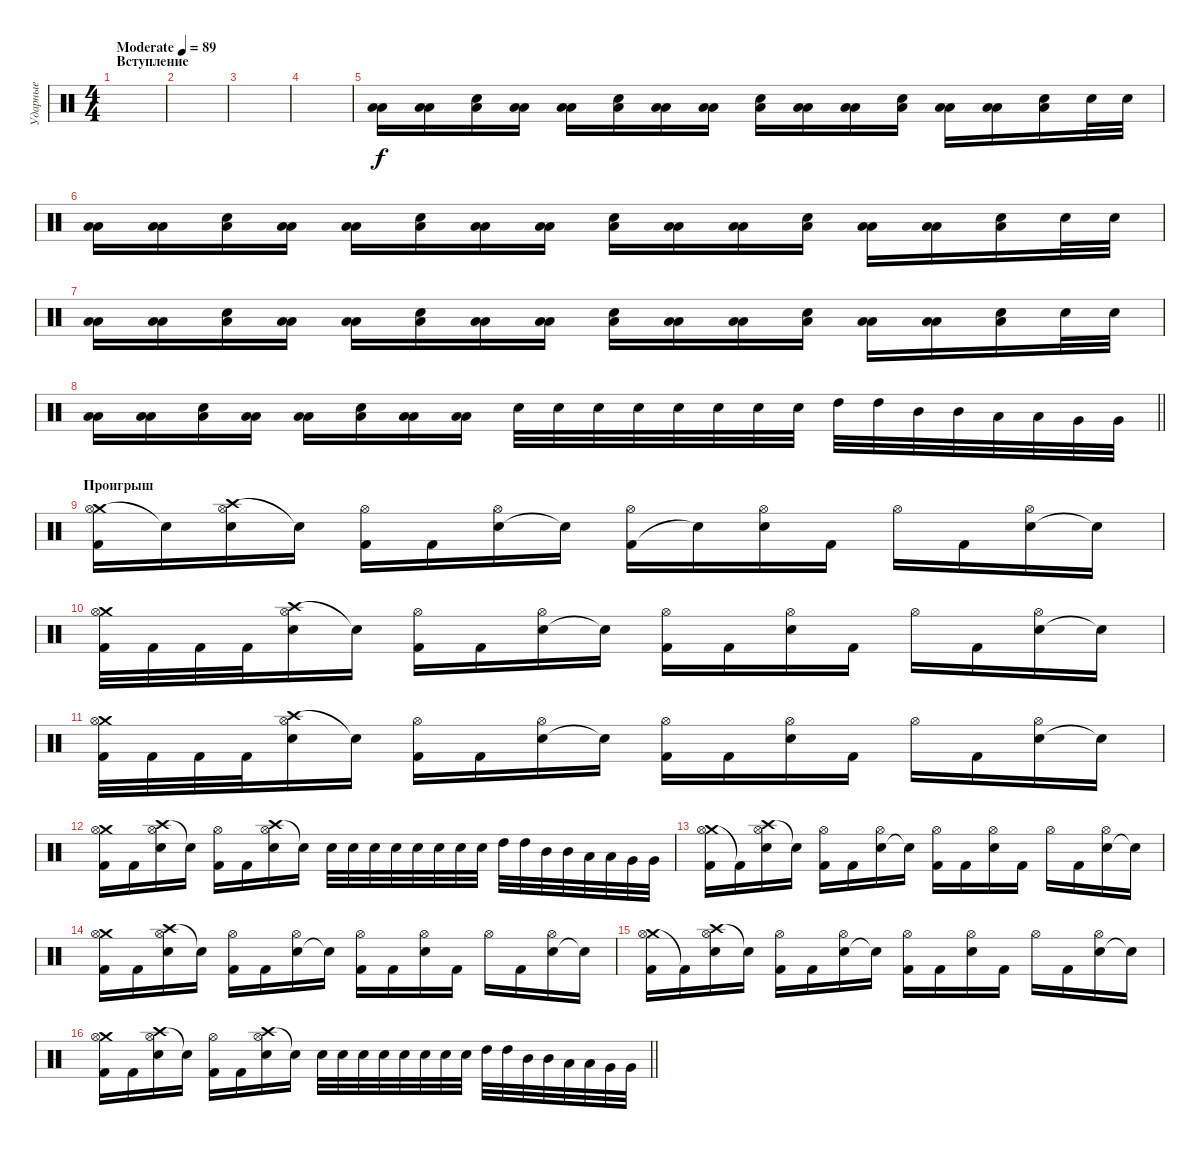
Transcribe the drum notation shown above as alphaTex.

\track ("Ударные" "Ударные") {instrument percussion}
\staff {score}
\articulation defaults
\ts (4 4)
\section ("" "Вступление")
\tempo (89 "Moderate")
\clef neutral
\ks c
|
|
|
|
("Low Tom (hit)" "Low Floor Tom (hit)").16 ("Low Tom (hit)" "Low Floor Tom (hit)").16 ("Electric Snare (hit)" "Low Floor Tom (hit)").16 ("Low Tom (hit)" "Low Floor Tom (hit)").16 ("Low Tom (hit)" "Low Floor Tom (hit)").16 ("Electric Snare (hit)" "Low Floor Tom (hit)").16 ("Low Tom (hit)" "Low Floor Tom (hit)").16 ("Low Tom (hit)" "Low Floor Tom (hit)").16 ("Electric Snare (hit)" "Low Floor Tom (hit)").16 ("Low Tom (hit)" "Low Floor Tom (hit)").16 ("Low Tom (hit)" "Low Floor Tom (hit)").16 ("Electric Snare (hit)" "Low Floor Tom (hit)").16 ("Low Tom (hit)" "Low Floor Tom (hit)").16 ("Low Tom (hit)" "Low Floor Tom (hit)").16 ("Electric Snare (hit)" "Low Floor Tom (hit)").16 "Electric Snare (hit)".32 "Electric Snare (hit)".32 |
("Low Tom (hit)" "Low Floor Tom (hit)").16 ("Low Tom (hit)" "Low Floor Tom (hit)").16 ("Electric Snare (hit)" "Low Floor Tom (hit)").16 ("Low Tom (hit)" "Low Floor Tom (hit)").16 ("Low Tom (hit)" "Low Floor Tom (hit)").16 ("Electric Snare (hit)" "Low Floor Tom (hit)").16 ("Low Tom (hit)" "Low Floor Tom (hit)").16 ("Low Tom (hit)" "Low Floor Tom (hit)").16 ("Electric Snare (hit)" "Low Floor Tom (hit)").16 ("Low Tom (hit)" "Low Floor Tom (hit)").16 ("Low Tom (hit)" "Low Floor Tom (hit)").16 ("Electric Snare (hit)" "Low Floor Tom (hit)").16 ("Low Tom (hit)" "Low Floor Tom (hit)").16 ("Low Tom (hit)" "Low Floor Tom (hit)").16 ("Electric Snare (hit)" "Low Floor Tom (hit)").16 "Electric Snare (hit)".32 "Electric Snare (hit)".32 |
("Low Tom (hit)" "Low Floor Tom (hit)").16 ("Low Tom (hit)" "Low Floor Tom (hit)").16 ("Electric Snare (hit)" "Low Floor Tom (hit)").16 ("Low Tom (hit)" "Low Floor Tom (hit)").16 ("Low Tom (hit)" "Low Floor Tom (hit)").16 ("Electric Snare (hit)" "Low Floor Tom (hit)").16 ("Low Tom (hit)" "Low Floor Tom (hit)").16 ("Low Tom (hit)" "Low Floor Tom (hit)").16 ("Electric Snare (hit)" "Low Floor Tom (hit)").16 ("Low Tom (hit)" "Low Floor Tom (hit)").16 ("Low Tom (hit)" "Low Floor Tom (hit)").16 ("Electric Snare (hit)" "Low Floor Tom (hit)").16 ("Low Tom (hit)" "Low Floor Tom (hit)").16 ("Low Tom (hit)" "Low Floor Tom (hit)").16 ("Electric Snare (hit)" "Low Floor Tom (hit)").16 "Electric Snare (hit)".32 "Electric Snare (hit)".32 |
\barLineRight lightlight
("Low Tom (hit)" "Low Floor Tom (hit)").16 ("Low Tom (hit)" "Low Floor Tom (hit)").16 ("Electric Snare (hit)" "Low Floor Tom (hit)").16 ("Low Tom (hit)" "Low Floor Tom (hit)").16 ("Low Tom (hit)" "Low Floor Tom (hit)").16 ("Electric Snare (hit)" "Low Floor Tom (hit)").16 ("Low Tom (hit)" "Low Floor Tom (hit)").16 ("Low Tom (hit)" "Low Floor Tom (hit)").16 "Electric Snare (hit)".32 "Electric Snare (hit)".32 "Electric Snare (hit)".32 "Electric Snare (hit)".32 "Electric Snare (hit)".32 "Electric Snare (hit)".32 "Electric Snare (hit)".32 "Electric Snare (hit)".32 "High Tom (hit)".32 "High Tom (hit)".32 "Mid Tom (hit)".32 "Mid Tom (hit)".32 "Low Tom (hit)".32 "Low Tom (hit)".32 "Very Low Tom (hit)".32 "Very Low Tom (hit)".32 |
\section ("" "Проигрыш")
("Crash medium (hit)" "Kick (hit) 2" "Hi-Hat (open)").16 "Snare (hit)"{t}.16 ("Crash high (hit)" "Electric Snare (hit)" "Hi-Hat (open)").16 "Snare (hit)"{t}.16 ("Kick (hit) 2" "Hi-Hat (open)").16 "Kick (hit) 2".16 ("Electric Snare (hit)" "Hi-Hat (open)").16 "Snare (hit)"{t}.16 ("Kick (hit) 2" "Hi-Hat (open)").16 "Snare (hit)"{t}.16 ("Electric Snare (hit)" "Hi-Hat (open)").16 "Kick (hit) 2".16 "Hi-Hat (open)".16 "Kick (hit) 2".16 ("Electric Snare (hit)" "Hi-Hat (open)").16 "Snare (hit)"{t}.16 |
("Crash medium (hit)" "Kick (hit) 2" "Hi-Hat (open)").32 "Kick (hit) 2".32 "Kick (hit) 2".32 "Kick (hit) 2".32 ("Crash high (hit)" "Electric Snare (hit)" "Hi-Hat (open)").16 "Snare (hit)"{t}.16 ("Kick (hit) 2" "Hi-Hat (open)").16 "Kick (hit) 2".16 ("Electric Snare (hit)" "Hi-Hat (open)").16 "Snare (hit)"{t}.16 ("Kick (hit) 2" "Hi-Hat (open)").16 "Kick (hit) 2".16 ("Electric Snare (hit)" "Hi-Hat (open)").16 "Kick (hit) 2".16 "Hi-Hat (open)".16 "Kick (hit) 2".16 ("Electric Snare (hit)" "Hi-Hat (open)").16 "Electric Snare (hit)"{t}.16 |
("Crash medium (hit)" "Kick (hit) 2" "Hi-Hat (open)").32 "Kick (hit) 2".32 "Kick (hit) 2".32 "Kick (hit) 2".32 ("Crash high (hit)" "Electric Snare (hit)" "Hi-Hat (open)").16 "Snare (hit)"{t}.16 ("Kick (hit) 2" "Hi-Hat (open)").16 "Kick (hit) 2".16 ("Electric Snare (hit)" "Hi-Hat (open)").16 "Snare (hit)"{t}.16 ("Kick (hit) 2" "Hi-Hat (open)").16 "Kick (hit) 2".16 ("Electric Snare (hit)" "Hi-Hat (open)").16 "Kick (hit) 2".16 "Hi-Hat (open)".16 "Kick (hit) 2".16 ("Electric Snare (hit)" "Hi-Hat (open)").16 "Electric Snare (hit)"{t}.16 |
("Crash medium (hit)" "Kick (hit) 2" "Hi-Hat (open)").16 "Kick (hit) 2".16 ("Crash high (hit)" "Electric Snare (hit)" "Hi-Hat (open)").16 "Snare (hit)"{t}.16 ("Kick (hit) 2" "Hi-Hat (open)").16 "Kick (hit) 2".16 ("Crash high (hit)" "Electric Snare (hit)" "Hi-Hat (open)").16 "Snare (hit)"{t}.16 "Electric Snare (hit)".32 "Electric Snare (hit)".32 "Electric Snare (hit)".32 "Electric Snare (hit)".32 "Electric Snare (hit)".32 "Electric Snare (hit)".32 "Electric Snare (hit)".32 "Electric Snare (hit)".32 "High Tom (hit)".32 "High Tom (hit)".32 "Mid Tom (hit)".32 "Mid Tom (hit)".32 "Low Tom (hit)".32 "Low Tom (hit)".32 "Very Low Tom (hit)".32 "Very Low Tom (hit)".32 |
("Crash medium (hit)" "Kick (hit) 2" "Hi-Hat (open)").16 "Kick (hit) 2"{t}.16 ("Crash high (hit)" "Electric Snare (hit)" "Hi-Hat (open)").16 "Snare (hit)"{t}.16 ("Kick (hit) 2" "Hi-Hat (open)").16 "Kick (hit) 2".16 ("Electric Snare (hit)" "Hi-Hat (open)").16 "Snare (hit)"{t}.16 ("Kick (hit) 2" "Hi-Hat (open)").16 "Kick (hit) 2".16 ("Electric Snare (hit)" "Hi-Hat (open)").16 "Kick (hit) 2".16 "Hi-Hat (open)".16 "Kick (hit) 2".16 ("Electric Snare (hit)" "Hi-Hat (open)").16 "Snare (hit)"{t}.16 |
("Crash medium (hit)" "Kick (hit) 2" "Hi-Hat (open)").16 "Kick (hit) 2".16 ("Crash high (hit)" "Electric Snare (hit)" "Hi-Hat (open)").16 "Snare (hit)"{t}.16 ("Kick (hit) 2" "Hi-Hat (open)").16 "Kick (hit) 2".16 ("Electric Snare (hit)" "Hi-Hat (open)").16 "Snare (hit)"{t}.16 ("Kick (hit) 2" "Hi-Hat (open)").16 "Kick (hit) 2".16 ("Electric Snare (hit)" "Hi-Hat (open)").16 "Kick (hit) 2".16 "Hi-Hat (open)".16 "Kick (hit) 2".16 ("Electric Snare (hit)" "Hi-Hat (open)").16 "Snare (hit)"{t}.16 |
("Crash medium (hit)" "Kick (hit) 2" "Hi-Hat (open)").16 "Kick (hit) 2"{t}.16 ("Crash high (hit)" "Electric Snare (hit)" "Hi-Hat (open)").16 "Snare (hit)"{t}.16 ("Kick (hit) 2" "Hi-Hat (open)").16 "Kick (hit) 2".16 ("Electric Snare (hit)" "Hi-Hat (open)").16 "Snare (hit)"{t}.16 ("Kick (hit) 2" "Hi-Hat (open)").16 "Kick (hit) 2".16 ("Electric Snare (hit)" "Hi-Hat (open)").16 "Kick (hit) 2".16 "Hi-Hat (open)".16 "Kick (hit) 2".16 ("Electric Snare (hit)" "Hi-Hat (open)").16 "Snare (hit)"{t}.16 |
\barLineRight lightlight
("Crash medium (hit)" "Kick (hit) 2" "Hi-Hat (open)").16 "Kick (hit) 2".16 ("Crash high (hit)" "Electric Snare (hit)" "Hi-Hat (open)").16 "Snare (hit)"{t}.16 ("Kick (hit) 2" "Hi-Hat (open)").16 "Kick (hit) 2".16 ("Crash high (hit)" "Electric Snare (hit)" "Hi-Hat (open)").16 "Snare (hit)"{t}.16 "Electric Snare (hit)".32 "Electric Snare (hit)".32 "Electric Snare (hit)".32 "Electric Snare (hit)".32 "Electric Snare (hit)".32 "Electric Snare (hit)".32 "Electric Snare (hit)".32 "Electric Snare (hit)".32 "High Tom (hit)".32 "High Tom (hit)".32 "Mid Tom (hit)".32 "Mid Tom (hit)".32 "Low Tom (hit)".32 "Low Tom (hit)".32 "Very Low Tom (hit)".32 "Very Low Tom (hit)".32
